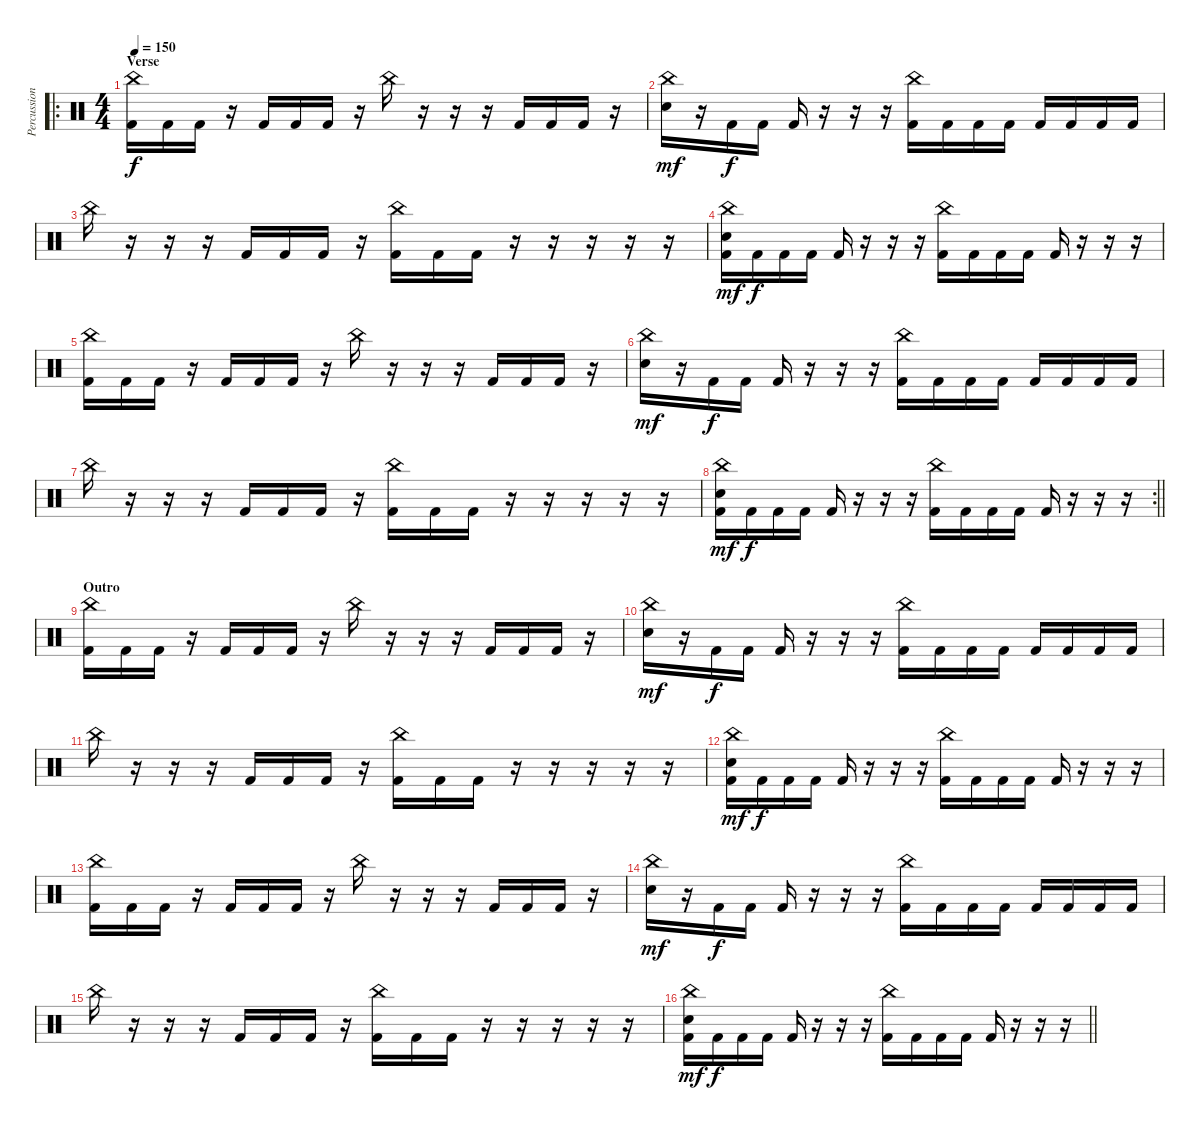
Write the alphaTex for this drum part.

\track ("Percussion" "Percussion") {instrument percussion}
\staff {score}
\articulation defaults
\ro
\ts (4 4)
\section ("" "Verse")
\tempo 150
\clef neutral
\ks c
("China (hit)" "Kick (hit) 2").16{dy f} "Kick (hit) 2".16 "Kick (hit) 2".16 r.16 "Kick (hit) 2".16 "Kick (hit) 2".16 "Kick (hit) 2".16 r.16 "China (hit)".16 r.16 r.16 r.16 "Kick (hit) 2".16 "Kick (hit) 2".16 "Kick (hit) 2".16 r.16 |
("China (hit)" "Electric Snare (hit)").16{dy mf} r.16 "Kick (hit) 2".16{dy f} "Kick (hit) 2".16 "Kick (hit) 2".16 r.16 r.16 r.16 ("China (hit)" "Kick (hit) 2").16 "Kick (hit) 2".16 "Kick (hit) 2".16 "Kick (hit) 2".16 "Kick (hit) 2".16 "Kick (hit) 2".16 "Kick (hit) 2".16 "Kick (hit) 2".16 |
"China (hit)".16 r.16 r.16 r.16 "Kick (hit) 2".16 "Kick (hit) 2".16 "Kick (hit) 2".16 r.16 ("China (hit)" "Kick (hit) 2").16 "Kick (hit) 2".16 "Kick (hit) 2".16 r.16 r.16 r.16 r.16 r.16 |
("China (hit)" "Electric Snare (hit)" "Kick (hit) 2").16{dy mf} "Kick (hit) 2".16{dy f} "Kick (hit) 2".16 "Kick (hit) 2".16 "Kick (hit) 2".16 r.16 r.16 r.16 ("China (hit)" "Kick (hit) 2").16 "Kick (hit) 2".16 "Kick (hit) 2".16 "Kick (hit) 2".16 "Kick (hit) 2".16 r.16 r.16 r.16 |
("China (hit)" "Kick (hit) 2").16 "Kick (hit) 2".16 "Kick (hit) 2".16 r.16 "Kick (hit) 2".16 "Kick (hit) 2".16 "Kick (hit) 2".16 r.16 "China (hit)".16 r.16 r.16 r.16 "Kick (hit) 2".16 "Kick (hit) 2".16 "Kick (hit) 2".16 r.16 |
("China (hit)" "Electric Snare (hit)").16{dy mf} r.16 "Kick (hit) 2".16{dy f} "Kick (hit) 2".16 "Kick (hit) 2".16 r.16 r.16 r.16 ("China (hit)" "Kick (hit) 2").16 "Kick (hit) 2".16 "Kick (hit) 2".16 "Kick (hit) 2".16 "Kick (hit) 2".16 "Kick (hit) 2".16 "Kick (hit) 2".16 "Kick (hit) 2".16 |
"China (hit)".16 r.16 r.16 r.16 "Kick (hit) 2".16 "Kick (hit) 2".16 "Kick (hit) 2".16 r.16 ("China (hit)" "Kick (hit) 2").16 "Kick (hit) 2".16 "Kick (hit) 2".16 r.16 r.16 r.16 r.16 r.16 |
\rc 2
\barLineRight lightlight
("China (hit)" "Electric Snare (hit)" "Kick (hit) 2").16{dy mf} "Kick (hit) 2".16{dy f} "Kick (hit) 2".16 "Kick (hit) 2".16 "Kick (hit) 2".16 r.16 r.16 r.16 ("China (hit)" "Kick (hit) 2").16 "Kick (hit) 2".16 "Kick (hit) 2".16 "Kick (hit) 2".16 "Kick (hit) 2".16 r.16 r.16 r.16 |
\section ("" "Outro")
("China (hit)" "Kick (hit) 2").16 "Kick (hit) 2".16 "Kick (hit) 2".16 r.16 "Kick (hit) 2".16 "Kick (hit) 2".16 "Kick (hit) 2".16 r.16 "China (hit)".16 r.16 r.16 r.16 "Kick (hit) 2".16 "Kick (hit) 2".16 "Kick (hit) 2".16 r.16 |
("China (hit)" "Electric Snare (hit)").16{dy mf} r.16 "Kick (hit) 2".16{dy f} "Kick (hit) 2".16 "Kick (hit) 2".16 r.16 r.16 r.16 ("China (hit)" "Kick (hit) 2").16 "Kick (hit) 2".16 "Kick (hit) 2".16 "Kick (hit) 2".16 "Kick (hit) 2".16 "Kick (hit) 2".16 "Kick (hit) 2".16 "Kick (hit) 2".16 |
"China (hit)".16 r.16 r.16 r.16 "Kick (hit) 2".16 "Kick (hit) 2".16 "Kick (hit) 2".16 r.16 ("China (hit)" "Kick (hit) 2").16 "Kick (hit) 2".16 "Kick (hit) 2".16 r.16 r.16 r.16 r.16 r.16 |
("China (hit)" "Electric Snare (hit)" "Kick (hit) 2").16{dy mf} "Kick (hit) 2".16{dy f} "Kick (hit) 2".16 "Kick (hit) 2".16 "Kick (hit) 2".16 r.16 r.16 r.16 ("China (hit)" "Kick (hit) 2").16 "Kick (hit) 2".16 "Kick (hit) 2".16 "Kick (hit) 2".16 "Kick (hit) 2".16 r.16 r.16 r.16 |
("China (hit)" "Kick (hit) 2").16 "Kick (hit) 2".16 "Kick (hit) 2".16 r.16 "Kick (hit) 2".16 "Kick (hit) 2".16 "Kick (hit) 2".16 r.16 "China (hit)".16 r.16 r.16 r.16 "Kick (hit) 2".16 "Kick (hit) 2".16 "Kick (hit) 2".16 r.16 |
("China (hit)" "Electric Snare (hit)").16{dy mf} r.16 "Kick (hit) 2".16{dy f} "Kick (hit) 2".16 "Kick (hit) 2".16 r.16 r.16 r.16 ("China (hit)" "Kick (hit) 2").16 "Kick (hit) 2".16 "Kick (hit) 2".16 "Kick (hit) 2".16 "Kick (hit) 2".16 "Kick (hit) 2".16 "Kick (hit) 2".16 "Kick (hit) 2".16 |
"China (hit)".16 r.16 r.16 r.16 "Kick (hit) 2".16 "Kick (hit) 2".16 "Kick (hit) 2".16 r.16 ("China (hit)" "Kick (hit) 2").16 "Kick (hit) 2".16 "Kick (hit) 2".16 r.16 r.16 r.16 r.16 r.16 |
\barLineRight lightlight
("China (hit)" "Electric Snare (hit)" "Kick (hit) 2").16{dy mf} "Kick (hit) 2".16{dy f} "Kick (hit) 2".16 "Kick (hit) 2".16 "Kick (hit) 2".16 r.16 r.16 r.16 ("China (hit)" "Kick (hit) 2").16 "Kick (hit) 2".16 "Kick (hit) 2".16 "Kick (hit) 2".16 "Kick (hit) 2".16 r.16 r.16 r.16
